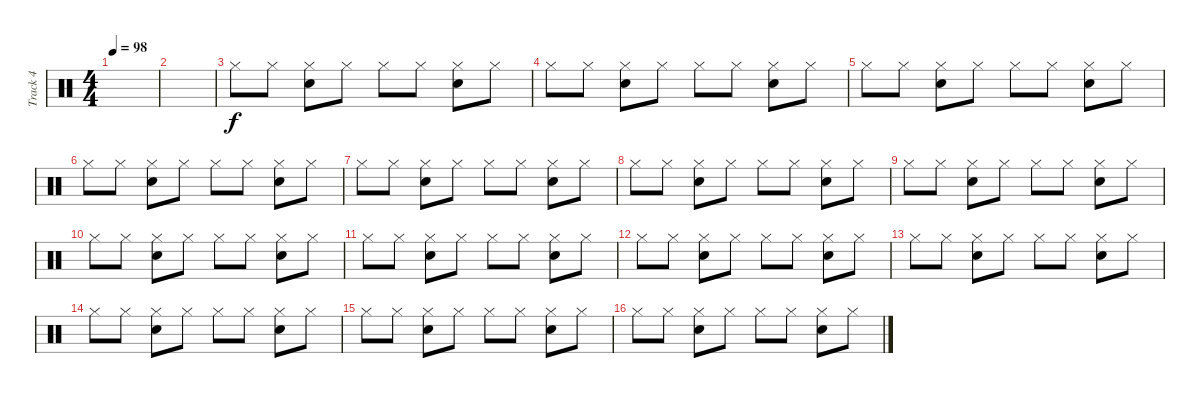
\track ("Track 4" "Track 4") {instrument percussion}
\staff {score}
\articulation defaults
\ts (4 4)
\tempo 98
\clef neutral
\ks c
|
|
"Hi-Hat (closed)".8 "Hi-Hat (closed)".8 ("Hi-Hat (closed)" "Snare (hit) 2").8 "Hi-Hat (closed)".8 "Hi-Hat (closed)".8 "Hi-Hat (closed)".8 ("Hi-Hat (closed)" "Snare (hit) 2").8 "Hi-Hat (closed)".8 |
"Hi-Hat (closed)".8 "Hi-Hat (closed)".8 ("Hi-Hat (closed)" "Snare (hit) 2").8 "Hi-Hat (closed)".8 "Hi-Hat (closed)".8 "Hi-Hat (closed)".8 ("Hi-Hat (closed)" "Snare (hit) 2").8 "Hi-Hat (closed)".8 |
"Hi-Hat (closed)".8 "Hi-Hat (closed)".8 ("Hi-Hat (closed)" "Snare (hit) 2").8 "Hi-Hat (closed)".8 "Hi-Hat (closed)".8 "Hi-Hat (closed)".8 ("Hi-Hat (closed)" "Snare (hit) 2").8 "Hi-Hat (closed)".8 |
"Hi-Hat (closed)".8 "Hi-Hat (closed)".8 ("Hi-Hat (closed)" "Snare (hit) 2").8 "Hi-Hat (closed)".8 "Hi-Hat (closed)".8 "Hi-Hat (closed)".8 ("Hi-Hat (closed)" "Snare (hit) 2").8 "Hi-Hat (closed)".8 |
"Hi-Hat (closed)".8 "Hi-Hat (closed)".8 ("Hi-Hat (closed)" "Snare (hit) 2").8 "Hi-Hat (closed)".8 "Hi-Hat (closed)".8 "Hi-Hat (closed)".8 ("Hi-Hat (closed)" "Snare (hit) 2").8 "Hi-Hat (closed)".8 |
"Hi-Hat (closed)".8 "Hi-Hat (closed)".8 ("Hi-Hat (closed)" "Snare (hit) 2").8 "Hi-Hat (closed)".8 "Hi-Hat (closed)".8 "Hi-Hat (closed)".8 ("Hi-Hat (closed)" "Snare (hit) 2").8 "Hi-Hat (closed)".8 |
"Hi-Hat (closed)".8 "Hi-Hat (closed)".8 ("Hi-Hat (closed)" "Snare (hit) 2").8 "Hi-Hat (closed)".8 "Hi-Hat (closed)".8 "Hi-Hat (closed)".8 ("Hi-Hat (closed)" "Snare (hit) 2").8 "Hi-Hat (closed)".8 |
"Hi-Hat (closed)".8 "Hi-Hat (closed)".8 ("Hi-Hat (closed)" "Snare (hit) 2").8 "Hi-Hat (closed)".8 "Hi-Hat (closed)".8 "Hi-Hat (closed)".8 ("Hi-Hat (closed)" "Snare (hit) 2").8 "Hi-Hat (closed)".8 |
"Hi-Hat (closed)".8 "Hi-Hat (closed)".8 ("Hi-Hat (closed)" "Snare (hit) 2").8 "Hi-Hat (closed)".8 "Hi-Hat (closed)".8 "Hi-Hat (closed)".8 ("Hi-Hat (closed)" "Snare (hit) 2").8 "Hi-Hat (closed)".8 |
"Hi-Hat (closed)".8 "Hi-Hat (closed)".8 ("Hi-Hat (closed)" "Snare (hit) 2").8 "Hi-Hat (closed)".8 "Hi-Hat (closed)".8 "Hi-Hat (closed)".8 ("Hi-Hat (closed)" "Snare (hit) 2").8 "Hi-Hat (closed)".8 |
"Hi-Hat (closed)".8 "Hi-Hat (closed)".8 ("Hi-Hat (closed)" "Snare (hit) 2").8 "Hi-Hat (closed)".8 "Hi-Hat (closed)".8 "Hi-Hat (closed)".8 ("Hi-Hat (closed)" "Snare (hit) 2").8 "Hi-Hat (closed)".8 |
"Hi-Hat (closed)".8 "Hi-Hat (closed)".8 ("Hi-Hat (closed)" "Snare (hit) 2").8 "Hi-Hat (closed)".8 "Hi-Hat (closed)".8 "Hi-Hat (closed)".8 ("Hi-Hat (closed)" "Snare (hit) 2").8 "Hi-Hat (closed)".8 |
"Hi-Hat (closed)".8 "Hi-Hat (closed)".8 ("Hi-Hat (closed)" "Snare (hit) 2").8 "Hi-Hat (closed)".8 "Hi-Hat (closed)".8 "Hi-Hat (closed)".8 ("Hi-Hat (closed)" "Snare (hit) 2").8 "Hi-Hat (closed)".8 |
"Hi-Hat (closed)".8 "Hi-Hat (closed)".8 ("Hi-Hat (closed)" "Snare (hit) 2").8 "Hi-Hat (closed)".8 "Hi-Hat (closed)".8 "Hi-Hat (closed)".8 ("Hi-Hat (closed)" "Snare (hit) 2").8 "Hi-Hat (closed)".8
